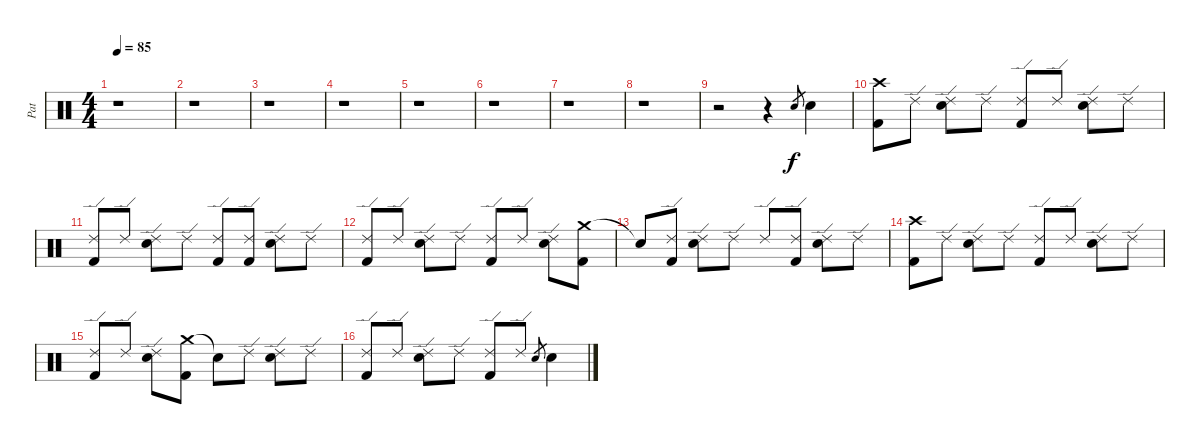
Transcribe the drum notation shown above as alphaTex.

\track ("Pat" "Pat") {instrument percussion}
\staff {score}
\articulation defaults
\ts (4 4)
\tempo 85
\clef neutral
\ks c
r.1{dy f} |
r.1 |
r.1 |
r.1 |
r.1 |
r.1 |
r.1 |
r.1 |
r.2 r.4 "Electric Snare (hit)".8{gr} "Electric Snare (hit)".4 |
("Crash high (hit)" "Kick (hit) 2").8 "Ride (edge) 2".8 ("Ride (edge) 2" "Electric Snare (hit)").8 "Ride (edge) 2".8 ("Ride (edge) 2" "Kick (hit) 2").8 "Ride (edge) 2".8 ("Ride (edge) 2" "Electric Snare (hit)").8 "Ride (edge) 2".8 |
("Ride (edge) 2" "Kick (hit) 2").8 "Ride (edge) 2".8 ("Ride (edge) 2" "Electric Snare (hit)").8 "Ride (edge) 2".8 ("Ride (edge) 2" "Kick (hit) 2").8 ("Ride (edge) 2" "Kick (hit) 2").8 ("Ride (edge) 2" "Electric Snare (hit)").8 "Ride (edge) 2".8 |
("Ride (edge) 2" "Kick (hit) 2").8 "Ride (edge) 2".8 ("Ride (edge) 2" "Electric Snare (hit)").8 "Ride (edge) 2".8 ("Ride (edge) 2" "Kick (hit) 2").8 "Ride (edge) 2".8 ("Ride (edge) 2" "Electric Snare (hit)").8 ("Crash medium (hit)" "Kick (hit) 2").8 |
"Snare (hit)"{t}.8 ("Ride (edge) 2" "Kick (hit) 2").8 ("Ride (edge) 2" "Electric Snare (hit)").8 "Ride (edge) 2".8 "Ride (edge) 2".8 ("Ride (edge) 2" "Kick (hit) 2").8 ("Ride (edge) 2" "Electric Snare (hit)").8 "Ride (edge) 2".8 |
("Crash high (hit)" "Kick (hit) 2").8 "Ride (edge) 2".8 ("Ride (edge) 2" "Electric Snare (hit)").8 "Ride (edge) 2".8 ("Ride (edge) 2" "Kick (hit) 2").8 "Ride (edge) 2".8 ("Ride (edge) 2" "Electric Snare (hit)").8 "Ride (edge) 2".8 |
("Ride (edge) 2" "Kick (hit) 2").8 "Ride (edge) 2".8 ("Ride (edge) 2" "Electric Snare (hit)").8 ("Crash medium (hit)" "Kick (hit) 2").8 "Snare (hit)"{t}.8 "Ride (edge) 2".8 ("Ride (edge) 2" "Electric Snare (hit)").8 "Ride (edge) 2".8 |
("Ride (edge) 2" "Kick (hit) 2").8 "Ride (edge) 2".8 ("Ride (edge) 2" "Electric Snare (hit)").8 "Ride (edge) 2".8 ("Ride (edge) 2" "Kick (hit) 2").8 "Ride (edge) 2".8 "Electric Snare (hit)".8{gr} "Electric Snare (hit)".4
